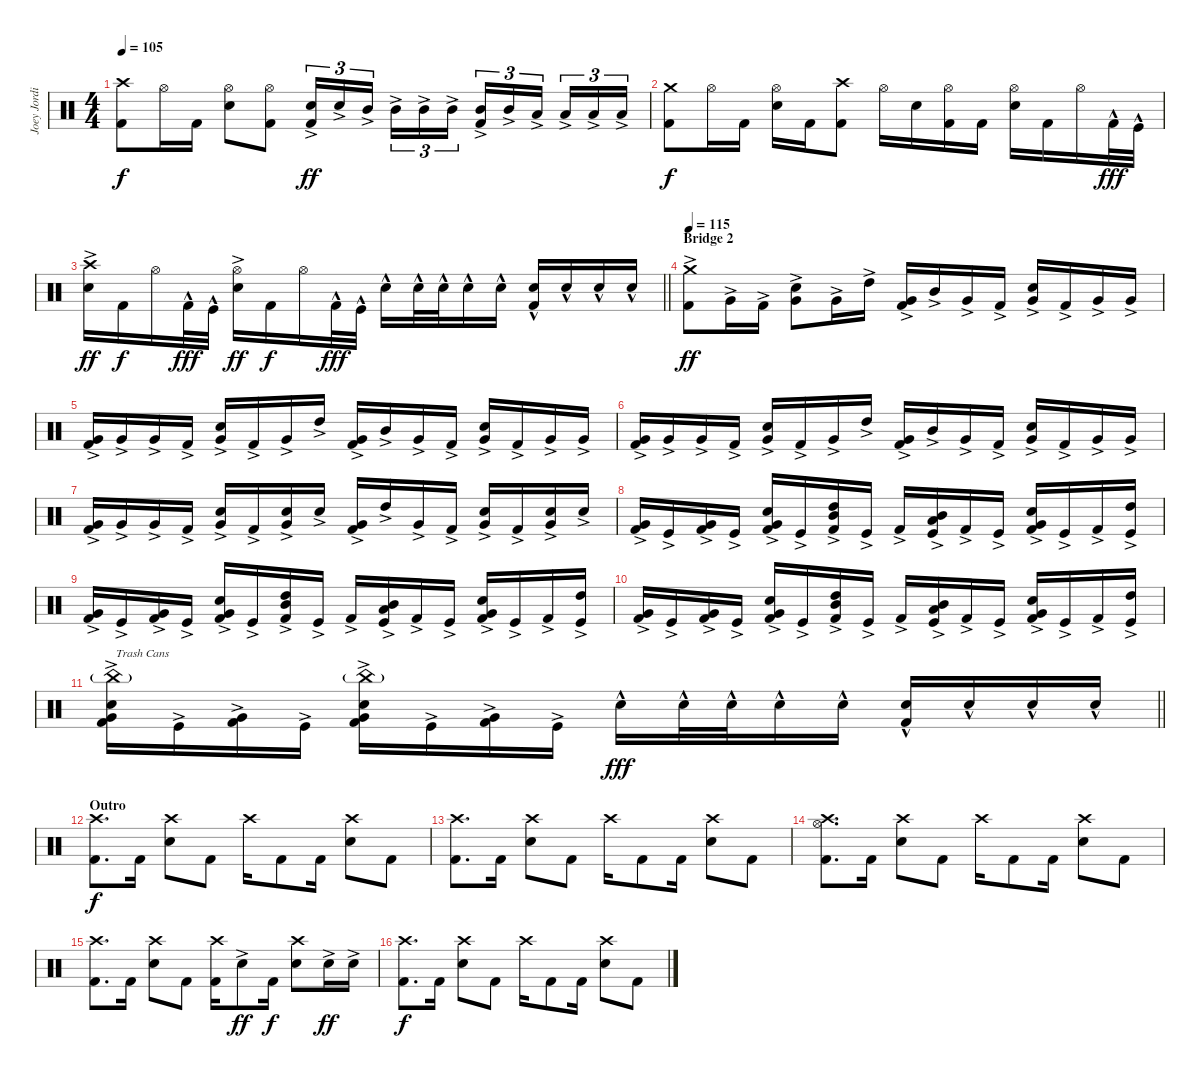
\track ("Joey Jordinson (Drums)" "Joey Jordi") {instrument percussion}
\staff {score}
\articulation defaults
\ts (4 4)
\tempo 105
\clef neutral
\ks c
("Crash high (hit)" "Kick (hit) 2").8{dy f} "Hi-Hat (open)".16 "Kick (hit) 2".16 ("Hi-Hat (open)" "Electric Snare (hit)").8 ("Hi-Hat (open)" "Kick (hit) 2").8 ("Electric Snare (hit)"{ac} "Kick (hit) 2").16{tu (3 2) dy ff} "Electric Snare (hit)"{ac}.16{tu (3 2)} "Mid Tom (hit)"{ac}.16{tu (3 2) beam splitsecondary} "Mid Tom (hit)"{ac}.16{tu (3 2)} "Mid Tom (hit)"{ac}.16{tu (3 2)} "Mid Tom (hit)"{ac}.16{tu (3 2)} ("Mid Tom (hit)"{ac} "Kick (hit) 2").16{tu (3 2)} "Mid Tom (hit)"{ac}.16{tu (3 2)} "Low Tom (hit)"{ac}.16{tu (3 2) beam splitsecondary} "Low Tom (hit)"{ac}.16{tu (3 2)} "Low Tom (hit)"{ac}.16{tu (3 2)} "Low Tom (hit)"{ac}.16{tu (3 2)} |
("Crash medium (hit)" "Kick (hit) 2").8{dy f} "Hi-Hat (open)".16 "Kick (hit) 2".16 ("Hi-Hat (open)" "Electric Snare (hit)").16 "Kick (hit) 2".16 ("Crash high (hit)" "Kick (hit) 2").8 "Hi-Hat (open)".16 "Electric Snare (hit)".16 ("Hi-Hat (open)" "Kick (hit) 2").16 "Kick (hit) 2".16 ("Hi-Hat (open)" "Electric Snare (hit)").16 "Kick (hit) 2".16 "Hi-Hat (open)".16 "Kick (hit) 2"{hac}.32{dy fff} "Kick (hit)"{hac}.32 |
\barLineRight lightlight
("Crash high (hit)" "Electric Snare (hit)"{ac}).16{dy ff} "Kick (hit) 2".16{dy f} "Hi-Hat (open)".16 "Kick (hit) 2"{hac}.32{dy fff} "Kick (hit)"{hac}.32 ("Hi-Hat (open)" "Electric Snare (hit)"{ac}).16{dy ff} "Kick (hit) 2".16{dy f} "Hi-Hat (open)".16 "Kick (hit) 2"{hac}.32{dy fff} "Kick (hit)"{hac}.32 "Electric Snare (hit)"{hac}.16 "Electric Snare (hit)"{hac}.32 "Electric Snare (hit)"{hac}.32 "Electric Snare (hit)"{hac}.16 "Electric Snare (hit)"{hac}.16 ("Electric Snare (hit)"{hac} "Kick (hit) 2").16 "Electric Snare (hit)"{hac}.16 "Electric Snare (hit)"{hac}.16 "Electric Snare (hit)"{hac}.16 |
\section ("" "Bridge 2")
\tempo 115
("Crash medium (hit)"{ac} "Kick (hit) 2"{ac}).8{dy ff} "Very Low Tom (hit)"{ac}.16 "Kick (hit) 2"{ac}.16 ("Electric Snare (hit)"{ac} "Very Low Tom (hit)"{ac}).8 "Very Low Tom (hit)"{ac}.16 "High Tom (hit)"{ac}.16 ("Very Low Tom (hit)"{ac} "Kick (hit) 2"{ac}).16 "Mid Tom (hit)"{ac}.16 "Very Low Tom (hit)"{ac}.16 "Kick (hit) 2"{ac}.16 ("Electric Snare (hit)"{ac} "Very Low Tom (hit)"{ac}).16 "Kick (hit) 2"{ac}.16 "Very Low Tom (hit)"{ac}.16 "Very Low Tom (hit)"{ac}.16 |
("Very Low Tom (hit)"{ac} "Kick (hit) 2"{ac}).16 "Very Low Tom (hit)"{ac}.16 "Very Low Tom (hit)"{ac}.16 "Kick (hit) 2"{ac}.16 ("Electric Snare (hit)"{ac} "Very Low Tom (hit)"{ac}).16 "Kick (hit) 2"{ac}.16 "Very Low Tom (hit)"{ac}.16 "High Tom (hit)"{ac}.16 ("Very Low Tom (hit)"{ac} "Kick (hit) 2"{ac}).16 "Mid Tom (hit)"{ac}.16 "Very Low Tom (hit)"{ac}.16 "Kick (hit) 2"{ac}.16 ("Electric Snare (hit)"{ac} "Very Low Tom (hit)"{ac}).16 "Kick (hit) 2"{ac}.16 "Very Low Tom (hit)"{ac}.16 "Very Low Tom (hit)"{ac}.16 |
("Very Low Tom (hit)"{ac} "Kick (hit) 2"{ac}).16 "Very Low Tom (hit)"{ac}.16 "Very Low Tom (hit)"{ac}.16 "Kick (hit) 2"{ac}.16 ("Electric Snare (hit)"{ac} "Very Low Tom (hit)"{ac}).16 "Kick (hit) 2"{ac}.16 "Very Low Tom (hit)"{ac}.16 "High Tom (hit)"{ac}.16 ("Very Low Tom (hit)"{ac} "Kick (hit) 2"{ac}).16 "Mid Tom (hit)"{ac}.16 "Very Low Tom (hit)"{ac}.16 "Kick (hit) 2"{ac}.16 ("Electric Snare (hit)"{ac} "Very Low Tom (hit)"{ac}).16 "Kick (hit) 2"{ac}.16 "Very Low Tom (hit)"{ac}.16 "Very Low Tom (hit)"{ac}.16 |
("Very Low Tom (hit)"{ac} "Kick (hit) 2"{ac}).16 "Very Low Tom (hit)"{ac}.16 "Very Low Tom (hit)"{ac}.16 "Kick (hit) 2"{ac}.16 ("Electric Snare (hit)"{ac} "Very Low Tom (hit)"{ac}).16 "Kick (hit) 2"{ac}.16 ("Electric Snare (hit)"{ac} "Very Low Tom (hit)"{ac}).16 "Electric Snare (hit)"{ac}.16 ("Very Low Tom (hit)"{ac} "Kick (hit) 2"{ac}).16 "High Tom (hit)"{ac}.16 "Very Low Tom (hit)"{ac}.16 "Kick (hit) 2"{ac}.16 ("Electric Snare (hit)"{ac} "Very Low Tom (hit)"{ac}).16 "Kick (hit) 2"{ac}.16 ("Electric Snare (hit)"{ac} "Very Low Tom (hit)"{ac}).16 "Electric Snare (hit)"{ac}.16 |
("Very Low Tom (hit)"{ac} "Kick (hit) 2"{ac}).16 "Kick (hit)"{ac}.16 ("Very Low Tom (hit)"{ac} "Kick (hit) 2"{ac}).16 "Kick (hit)"{ac}.16 ("Electric Snare (hit)"{ac} "Very Low Tom (hit)"{ac} "Kick (hit) 2"{ac}).16 "Kick (hit)"{ac}.16 ("High Tom (hit)"{ac} "Mid Tom (hit)"{ac} "Kick (hit) 2"{ac}).16 "Kick (hit)"{ac}.16 "Kick (hit) 2"{ac}.16 ("Mid Tom (hit)"{ac} "Low Tom (hit)"{ac} "Kick (hit)"{ac}).16 "Kick (hit) 2"{ac}.16 "Kick (hit)"{ac}.16 ("Electric Snare (hit)"{ac} "Very Low Tom (hit)"{ac} "Kick (hit) 2"{ac}).16 "Kick (hit)"{ac}.16 "Kick (hit) 2"{ac}.16 ("High Tom (hit)"{ac} "Kick (hit)"{ac}).16 |
("Very Low Tom (hit)"{ac} "Kick (hit) 2"{ac}).16 "Kick (hit)"{ac}.16 ("Very Low Tom (hit)"{ac} "Kick (hit) 2"{ac}).16 "Kick (hit)"{ac}.16 ("Electric Snare (hit)"{ac} "Very Low Tom (hit)"{ac} "Kick (hit) 2"{ac}).16 "Kick (hit)"{ac}.16 ("High Tom (hit)"{ac} "Mid Tom (hit)"{ac} "Kick (hit) 2"{ac}).16 "Kick (hit)"{ac}.16 "Kick (hit) 2"{ac}.16 ("Mid Tom (hit)"{ac} "Low Tom (hit)"{ac} "Kick (hit)"{ac}).16 "Kick (hit) 2"{ac}.16 "Kick (hit)"{ac}.16 ("Electric Snare (hit)"{ac} "Very Low Tom (hit)"{ac} "Kick (hit) 2"{ac}).16 "Kick (hit)"{ac}.16 "Kick (hit) 2"{ac}.16 ("High Tom (hit)"{ac} "Kick (hit)"{ac}).16 |
("Very Low Tom (hit)"{ac} "Kick (hit) 2"{ac}).16 "Kick (hit)"{ac}.16 ("Very Low Tom (hit)"{ac} "Kick (hit) 2"{ac}).16 "Kick (hit)"{ac}.16 ("Electric Snare (hit)"{ac} "Very Low Tom (hit)"{ac} "Kick (hit) 2"{ac}).16 "Kick (hit)"{ac}.16 ("High Tom (hit)"{ac} "Mid Tom (hit)"{ac} "Kick (hit) 2"{ac}).16 "Kick (hit)"{ac}.16 "Kick (hit) 2"{ac}.16 ("Mid Tom (hit)"{ac} "Low Tom (hit)"{ac} "Kick (hit)"{ac}).16 "Kick (hit) 2"{ac}.16 "Kick (hit)"{ac}.16 ("Electric Snare (hit)"{ac} "Very Low Tom (hit)"{ac} "Kick (hit) 2"{ac}).16 "Kick (hit)"{ac}.16 "Kick (hit) 2"{ac}.16 ("High Tom (hit)"{ac} "Kick (hit)"{ac}).16 |
\barLineRight lightlight
("China (hit)"{g} "Electric Snare (hit)"{ac} "Very Low Tom (hit)"{ac} "Kick (hit) 2"{ac}).16{txt "Trash Cans"} "Kick (hit)"{ac}.16 ("Very Low Tom (hit)"{ac} "Kick (hit) 2"{ac}).16 "Kick (hit)"{ac}.16 ("China (hit)"{g} "Electric Snare (hit)"{ac} "Very Low Tom (hit)"{ac} "Kick (hit) 2"{ac}).16 "Kick (hit)"{ac}.16 ("Very Low Tom (hit)"{ac} "Kick (hit) 2"{ac}).16 "Kick (hit)"{ac}.16 "Electric Snare (hit)"{hac}.16{dy fff} "Electric Snare (hit)"{hac}.32 "Electric Snare (hit)"{hac}.32 "Electric Snare (hit)"{hac}.16 "Electric Snare (hit)"{hac}.16 ("Electric Snare (hit)"{hac} "Kick (hit) 2"{hac}).16 "Electric Snare (hit)"{hac}.16 "Electric Snare (hit)"{hac}.16 "Electric Snare (hit)"{hac}.16 |
\section ("" "Outro")
("Crash high (hit)" "Kick (hit) 2").8{d dy f} "Kick (hit) 2".16 ("Crash high (hit)" "Electric Snare (hit)").8 "Kick (hit) 2".8 "Crash high (hit)".16 "Kick (hit) 2".8 "Kick (hit) 2".16 ("Crash high (hit)" "Electric Snare (hit)").8 "Kick (hit) 2".8 |
("Crash high (hit)" "Kick (hit) 2").8{d} "Kick (hit) 2".16 ("Crash high (hit)" "Electric Snare (hit)").8 "Kick (hit) 2".8 "Crash high (hit)".16 "Kick (hit) 2".8 "Kick (hit) 2".16 ("Crash high (hit)" "Electric Snare (hit)").8 "Kick (hit) 2".8 |
("Crash high (hit)" "Hi-Hat (open)" "Kick (hit) 2").8{d} "Kick (hit) 2".16 ("Crash high (hit)" "Electric Snare (hit)").8 "Kick (hit) 2".8 "Crash high (hit)".16 "Kick (hit) 2".8 "Kick (hit) 2".16 ("Crash high (hit)" "Electric Snare (hit)").8 "Kick (hit) 2".8 |
("Crash high (hit)" "Kick (hit) 2").8{d} "Kick (hit) 2".16 ("Crash high (hit)" "Electric Snare (hit)").8 "Kick (hit) 2".8 ("Crash high (hit)" "Kick (hit) 2").16 "Electric Snare (hit)"{ac}.8{dy ff} "Kick (hit) 2".16{dy f} ("Crash high (hit)" "Electric Snare (hit)").8 "Electric Snare (hit)"{ac}.16{dy ff} "Electric Snare (hit)"{ac}.16 |
("Crash high (hit)" "Kick (hit) 2").8{d dy f} "Kick (hit) 2".16 ("Crash high (hit)" "Electric Snare (hit)").8 "Kick (hit) 2".8 "Crash high (hit)".16 "Kick (hit) 2".8 "Kick (hit) 2".16 ("Crash high (hit)" "Electric Snare (hit)").8 "Kick (hit) 2".8
